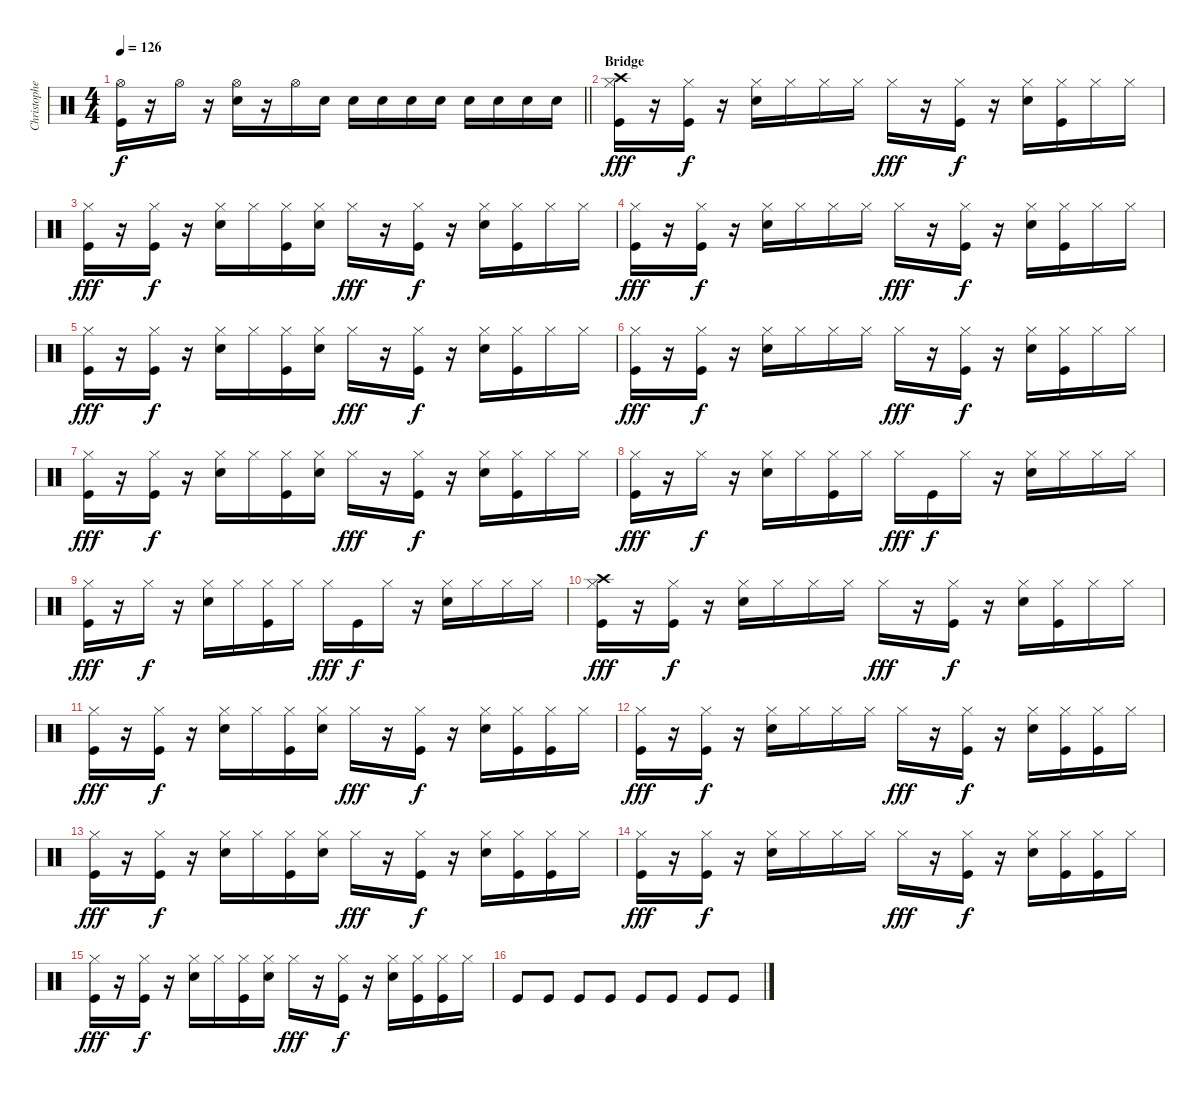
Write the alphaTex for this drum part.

\track ("Christopher - Drums" "Christophe") {instrument percussion}
\staff {score}
\articulation defaults
\ts (4 4)
\tempo 126
\clef neutral
\barLineRight lightlight
\ks c
("Hi-Hat (open)" "Kick (hit)").16{dy f} r.16 "Hi-Hat (open)".16 r.16 ("Hi-Hat (open)" "Snare (hit) 2").16 r.16 "Hi-Hat (open)".16 "Snare (hit) 2".16 "Snare (hit) 2".16 "Snare (hit) 2".16 "Snare (hit) 2".16 "Snare (hit) 2".16 "Snare (hit) 2".16 "Snare (hit) 2".16 "Snare (hit) 2".16 "Snare (hit) 2".16 |
\section ("" "Bridge")
("Crash high (hit)" "Hi-Hat (closed)" "Kick (hit)").16{dy fff} r.16 ("Hi-Hat (closed)" "Kick (hit)").16{dy f} r.16 ("Hi-Hat (closed)" "Snare (hit) 2").16 "Hi-Hat (closed)".16 "Hi-Hat (closed)".16 "Hi-Hat (closed)".16 "Hi-Hat (closed)".16{dy fff} r.16 ("Hi-Hat (closed)" "Kick (hit)").16{dy f} r.16 ("Hi-Hat (closed)" "Snare (hit) 2").16 ("Hi-Hat (closed)" "Kick (hit)").16 "Hi-Hat (closed)".16 "Hi-Hat (closed)".16 |
("Hi-Hat (closed)" "Kick (hit)").16{dy fff} r.16 ("Hi-Hat (closed)" "Kick (hit)").16{dy f} r.16 ("Hi-Hat (closed)" "Snare (hit) 2").16 "Hi-Hat (closed)".16 ("Hi-Hat (closed)" "Kick (hit)").16 ("Hi-Hat (closed)" "Snare (hit) 2").16 "Hi-Hat (closed)".16{dy fff} r.16 ("Hi-Hat (closed)" "Kick (hit)").16{dy f} r.16 ("Hi-Hat (closed)" "Snare (hit) 2").16 ("Hi-Hat (closed)" "Kick (hit)").16 "Hi-Hat (closed)".16 "Hi-Hat (closed)".16 |
("Hi-Hat (closed)" "Kick (hit)").16{dy fff} r.16 ("Hi-Hat (closed)" "Kick (hit)").16{dy f} r.16 ("Hi-Hat (closed)" "Snare (hit) 2").16 "Hi-Hat (closed)".16 "Hi-Hat (closed)".16 "Hi-Hat (closed)".16 "Hi-Hat (closed)".16{dy fff} r.16 ("Hi-Hat (closed)" "Kick (hit)").16{dy f} r.16 ("Hi-Hat (closed)" "Snare (hit) 2").16 ("Hi-Hat (closed)" "Kick (hit)").16 "Hi-Hat (closed)".16 "Hi-Hat (closed)".16 |
("Hi-Hat (closed)" "Kick (hit)").16{dy fff} r.16 ("Hi-Hat (closed)" "Kick (hit)").16{dy f} r.16 ("Hi-Hat (closed)" "Snare (hit) 2").16 "Hi-Hat (closed)".16 ("Hi-Hat (closed)" "Kick (hit)").16 ("Hi-Hat (closed)" "Snare (hit) 2").16 "Hi-Hat (closed)".16{dy fff} r.16 ("Hi-Hat (closed)" "Kick (hit)").16{dy f} r.16 ("Hi-Hat (closed)" "Snare (hit) 2").16 ("Hi-Hat (closed)" "Kick (hit)").16 "Hi-Hat (closed)".16 "Hi-Hat (closed)".16 |
("Hi-Hat (closed)" "Kick (hit)").16{dy fff} r.16 ("Hi-Hat (closed)" "Kick (hit)").16{dy f} r.16 ("Hi-Hat (closed)" "Snare (hit) 2").16 "Hi-Hat (closed)".16 "Hi-Hat (closed)".16 "Hi-Hat (closed)".16 "Hi-Hat (closed)".16{dy fff} r.16 ("Hi-Hat (closed)" "Kick (hit)").16{dy f} r.16 ("Hi-Hat (closed)" "Snare (hit) 2").16 ("Hi-Hat (closed)" "Kick (hit)").16 "Hi-Hat (closed)".16 "Hi-Hat (closed)".16 |
("Hi-Hat (closed)" "Kick (hit)").16{dy fff} r.16 ("Hi-Hat (closed)" "Kick (hit)").16{dy f} r.16 ("Hi-Hat (closed)" "Snare (hit) 2").16 "Hi-Hat (closed)".16 ("Hi-Hat (closed)" "Kick (hit)").16 ("Hi-Hat (closed)" "Snare (hit) 2").16 "Hi-Hat (closed)".16{dy fff} r.16 ("Hi-Hat (closed)" "Kick (hit)").16{dy f} r.16 ("Hi-Hat (closed)" "Snare (hit) 2").16 ("Hi-Hat (closed)" "Kick (hit)").16 "Hi-Hat (closed)".16 "Hi-Hat (closed)".16 |
("Hi-Hat (closed)" "Kick (hit)").16{dy fff} r.16 "Hi-Hat (closed)".16{dy f} r.16 ("Hi-Hat (closed)" "Snare (hit) 2").16 "Hi-Hat (closed)".16 ("Hi-Hat (closed)" "Kick (hit)").16 "Hi-Hat (closed)".16 "Hi-Hat (closed)".16{dy fff} "Kick (hit)".16{dy f} "Hi-Hat (closed)".16 r.16 ("Hi-Hat (closed)" "Snare (hit) 2").16 "Hi-Hat (closed)".16 "Hi-Hat (closed)".16 "Hi-Hat (closed)".16 |
("Hi-Hat (closed)" "Kick (hit)").16{dy fff} r.16 "Hi-Hat (closed)".16{dy f} r.16 ("Hi-Hat (closed)" "Snare (hit) 2").16 "Hi-Hat (closed)".16 ("Hi-Hat (closed)" "Kick (hit)").16 "Hi-Hat (closed)".16 "Hi-Hat (closed)".16{dy fff} "Kick (hit)".16{dy f} "Hi-Hat (closed)".16 r.16 ("Hi-Hat (closed)" "Snare (hit) 2").16 "Hi-Hat (closed)".16 "Hi-Hat (closed)".16 "Hi-Hat (closed)".16 |
("Crash high (hit)" "Hi-Hat (closed)" "Kick (hit)").16{dy fff} r.16 ("Hi-Hat (closed)" "Kick (hit)").16{dy f} r.16 ("Hi-Hat (closed)" "Snare (hit) 2").16 "Hi-Hat (closed)".16 "Hi-Hat (closed)".16 "Hi-Hat (closed)".16 "Hi-Hat (closed)".16{dy fff} r.16 ("Hi-Hat (closed)" "Kick (hit)").16{dy f} r.16 ("Hi-Hat (closed)" "Snare (hit) 2").16 ("Hi-Hat (closed)" "Kick (hit)").16 "Hi-Hat (closed)".16 "Hi-Hat (closed)".16 |
("Hi-Hat (closed)" "Kick (hit)").16{dy fff} r.16 ("Hi-Hat (closed)" "Kick (hit)").16{dy f} r.16 ("Hi-Hat (closed)" "Snare (hit) 2").16 "Hi-Hat (closed)".16 ("Hi-Hat (closed)" "Kick (hit)").16 ("Hi-Hat (closed)" "Snare (hit) 2").16 "Hi-Hat (closed)".16{dy fff} r.16 ("Hi-Hat (closed)" "Kick (hit)").16{dy f} r.16 ("Hi-Hat (closed)" "Snare (hit) 2").16 ("Hi-Hat (closed)" "Kick (hit)").16 ("Hi-Hat (closed)" "Kick (hit)").16 "Hi-Hat (closed)".16 |
("Hi-Hat (closed)" "Kick (hit)").16{dy fff} r.16 ("Hi-Hat (closed)" "Kick (hit)").16{dy f} r.16 ("Hi-Hat (closed)" "Snare (hit) 2").16 "Hi-Hat (closed)".16 "Hi-Hat (closed)".16 "Hi-Hat (closed)".16 "Hi-Hat (closed)".16{dy fff} r.16 ("Hi-Hat (closed)" "Kick (hit)").16{dy f} r.16 ("Hi-Hat (closed)" "Snare (hit) 2").16 ("Hi-Hat (closed)" "Kick (hit)").16 ("Hi-Hat (closed)" "Kick (hit)").16 "Hi-Hat (closed)".16 |
("Hi-Hat (closed)" "Kick (hit)").16{dy fff} r.16 ("Hi-Hat (closed)" "Kick (hit)").16{dy f} r.16 ("Hi-Hat (closed)" "Snare (hit) 2").16 "Hi-Hat (closed)".16 ("Hi-Hat (closed)" "Kick (hit)").16 ("Hi-Hat (closed)" "Snare (hit) 2").16 "Hi-Hat (closed)".16{dy fff} r.16 ("Hi-Hat (closed)" "Kick (hit)").16{dy f} r.16 ("Hi-Hat (closed)" "Snare (hit) 2").16 ("Hi-Hat (closed)" "Kick (hit)").16 ("Hi-Hat (closed)" "Kick (hit)").16 "Hi-Hat (closed)".16 |
("Hi-Hat (closed)" "Kick (hit)").16{dy fff} r.16 ("Hi-Hat (closed)" "Kick (hit)").16{dy f} r.16 ("Hi-Hat (closed)" "Snare (hit) 2").16 "Hi-Hat (closed)".16 "Hi-Hat (closed)".16 "Hi-Hat (closed)".16 "Hi-Hat (closed)".16{dy fff} r.16 ("Hi-Hat (closed)" "Kick (hit)").16{dy f} r.16 ("Hi-Hat (closed)" "Snare (hit) 2").16 ("Hi-Hat (closed)" "Kick (hit)").16 ("Hi-Hat (closed)" "Kick (hit)").16 "Hi-Hat (closed)".16 |
("Hi-Hat (closed)" "Kick (hit)").16{dy fff} r.16 ("Hi-Hat (closed)" "Kick (hit)").16{dy f} r.16 ("Hi-Hat (closed)" "Snare (hit) 2").16 "Hi-Hat (closed)".16 ("Hi-Hat (closed)" "Kick (hit)").16 ("Hi-Hat (closed)" "Snare (hit) 2").16 "Hi-Hat (closed)".16{dy fff} r.16 ("Hi-Hat (closed)" "Kick (hit)").16{dy f} r.16 ("Hi-Hat (closed)" "Snare (hit) 2").16 ("Hi-Hat (closed)" "Kick (hit)").16 ("Hi-Hat (closed)" "Kick (hit)").16 "Hi-Hat (closed)".16 |
"Kick (hit)".8 "Kick (hit)".8 "Kick (hit)".8 "Kick (hit)".8 "Kick (hit)".8 "Kick (hit)".8 "Kick (hit)".8 "Kick (hit)".8
